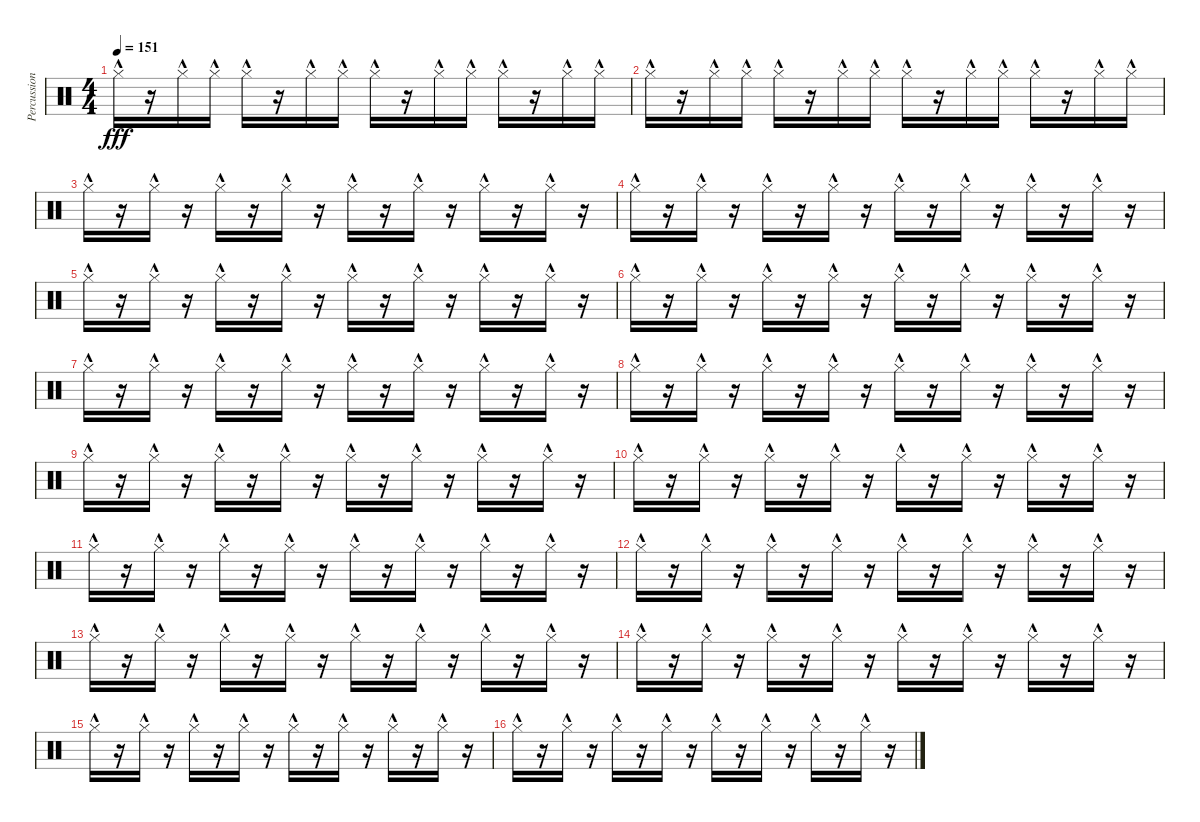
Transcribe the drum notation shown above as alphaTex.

\track ("Percussion" "Percussion") {instrument percussion}
\staff {score}
\articulation defaults
\ts (4 4)
\tempo 151
\clef neutral
\ks c "Hi-Hat (closed)"{hac}.16{dy fff}
r.16 "Hi-Hat (closed)"{hac}.16 "Hi-Hat (closed)"{hac}.16 "Hi-Hat (closed)"{hac}.16 r.16 "Hi-Hat (closed)"{hac}.16 "Hi-Hat (closed)"{hac}.16 "Hi-Hat (closed)"{hac}.16 r.16 "Hi-Hat (closed)"{hac}.16 "Hi-Hat (closed)"{hac}.16 "Hi-Hat (closed)"{hac}.16 r.16 "Hi-Hat (closed)"{hac}.16 "Hi-Hat (closed)"{hac}.16 |
"Hi-Hat (closed)"{hac}.16 r.16 "Hi-Hat (closed)"{hac}.16 "Hi-Hat (closed)"{hac}.16 "Hi-Hat (closed)"{hac}.16 r.16 "Hi-Hat (closed)"{hac}.16 "Hi-Hat (closed)"{hac}.16 "Hi-Hat (closed)"{hac}.16 r.16 "Hi-Hat (closed)"{hac}.16 "Hi-Hat (closed)"{hac}.16 "Hi-Hat (closed)"{hac}.16 r.16 "Hi-Hat (closed)"{hac}.16 "Hi-Hat (closed)"{hac}.16 |
"Hi-Hat (closed)"{hac}.16 r.16 "Hi-Hat (closed)"{hac}.16 r.16 "Hi-Hat (closed)"{hac}.16 r.16 "Hi-Hat (closed)"{hac}.16 r.16 "Hi-Hat (closed)"{hac}.16 r.16 "Hi-Hat (closed)"{hac}.16 r.16 "Hi-Hat (closed)"{hac}.16 r.16 "Hi-Hat (closed)"{hac}.16 r.16 |
"Hi-Hat (closed)"{hac}.16 r.16 "Hi-Hat (closed)"{hac}.16 r.16 "Hi-Hat (closed)"{hac}.16 r.16 "Hi-Hat (closed)"{hac}.16 r.16 "Hi-Hat (closed)"{hac}.16 r.16 "Hi-Hat (closed)"{hac}.16 r.16 "Hi-Hat (closed)"{hac}.16 r.16 "Hi-Hat (closed)"{hac}.16 r.16 |
"Hi-Hat (closed)"{hac}.16 r.16 "Hi-Hat (closed)"{hac}.16 r.16 "Hi-Hat (closed)"{hac}.16 r.16 "Hi-Hat (closed)"{hac}.16 r.16 "Hi-Hat (closed)"{hac}.16 r.16 "Hi-Hat (closed)"{hac}.16 r.16 "Hi-Hat (closed)"{hac}.16 r.16 "Hi-Hat (closed)"{hac}.16 r.16 |
"Hi-Hat (closed)"{hac}.16 r.16 "Hi-Hat (closed)"{hac}.16 r.16 "Hi-Hat (closed)"{hac}.16 r.16 "Hi-Hat (closed)"{hac}.16 r.16 "Hi-Hat (closed)"{hac}.16 r.16 "Hi-Hat (closed)"{hac}.16 r.16 "Hi-Hat (closed)"{hac}.16 r.16 "Hi-Hat (closed)"{hac}.16 r.16 |
"Hi-Hat (closed)"{hac}.16 r.16 "Hi-Hat (closed)"{hac}.16 r.16 "Hi-Hat (closed)"{hac}.16 r.16 "Hi-Hat (closed)"{hac}.16 r.16 "Hi-Hat (closed)"{hac}.16 r.16 "Hi-Hat (closed)"{hac}.16 r.16 "Hi-Hat (closed)"{hac}.16 r.16 "Hi-Hat (closed)"{hac}.16 r.16 |
"Hi-Hat (closed)"{hac}.16 r.16 "Hi-Hat (closed)"{hac}.16 r.16 "Hi-Hat (closed)"{hac}.16 r.16 "Hi-Hat (closed)"{hac}.16 r.16 "Hi-Hat (closed)"{hac}.16 r.16 "Hi-Hat (closed)"{hac}.16 r.16 "Hi-Hat (closed)"{hac}.16 r.16 "Hi-Hat (closed)"{hac}.16 r.16 |
"Hi-Hat (closed)"{hac}.16 r.16 "Hi-Hat (closed)"{hac}.16 r.16 "Hi-Hat (closed)"{hac}.16 r.16 "Hi-Hat (closed)"{hac}.16 r.16 "Hi-Hat (closed)"{hac}.16 r.16 "Hi-Hat (closed)"{hac}.16 r.16 "Hi-Hat (closed)"{hac}.16 r.16 "Hi-Hat (closed)"{hac}.16 r.16 |
"Hi-Hat (closed)"{hac}.16 r.16 "Hi-Hat (closed)"{hac}.16 r.16 "Hi-Hat (closed)"{hac}.16 r.16 "Hi-Hat (closed)"{hac}.16 r.16 "Hi-Hat (closed)"{hac}.16 r.16 "Hi-Hat (closed)"{hac}.16 r.16 "Hi-Hat (closed)"{hac}.16 r.16 "Hi-Hat (closed)"{hac}.16 r.16 |
"Hi-Hat (closed)"{hac}.16 r.16 "Hi-Hat (closed)"{hac}.16 r.16 "Hi-Hat (closed)"{hac}.16 r.16 "Hi-Hat (closed)"{hac}.16 r.16 "Hi-Hat (closed)"{hac}.16 r.16 "Hi-Hat (closed)"{hac}.16 r.16 "Hi-Hat (closed)"{hac}.16 r.16 "Hi-Hat (closed)"{hac}.16 r.16 |
"Hi-Hat (closed)"{hac}.16 r.16 "Hi-Hat (closed)"{hac}.16 r.16 "Hi-Hat (closed)"{hac}.16 r.16 "Hi-Hat (closed)"{hac}.16 r.16 "Hi-Hat (closed)"{hac}.16 r.16 "Hi-Hat (closed)"{hac}.16 r.16 "Hi-Hat (closed)"{hac}.16 r.16 "Hi-Hat (closed)"{hac}.16 r.16 |
"Hi-Hat (closed)"{hac}.16 r.16 "Hi-Hat (closed)"{hac}.16 r.16 "Hi-Hat (closed)"{hac}.16 r.16 "Hi-Hat (closed)"{hac}.16 r.16 "Hi-Hat (closed)"{hac}.16 r.16 "Hi-Hat (closed)"{hac}.16 r.16 "Hi-Hat (closed)"{hac}.16 r.16 "Hi-Hat (closed)"{hac}.16 r.16 |
"Hi-Hat (closed)"{hac}.16 r.16 "Hi-Hat (closed)"{hac}.16 r.16 "Hi-Hat (closed)"{hac}.16 r.16 "Hi-Hat (closed)"{hac}.16 r.16 "Hi-Hat (closed)"{hac}.16 r.16 "Hi-Hat (closed)"{hac}.16 r.16 "Hi-Hat (closed)"{hac}.16 r.16 "Hi-Hat (closed)"{hac}.16 r.16 |
"Hi-Hat (closed)"{hac}.16 r.16 "Hi-Hat (closed)"{hac}.16 r.16 "Hi-Hat (closed)"{hac}.16 r.16 "Hi-Hat (closed)"{hac}.16 r.16 "Hi-Hat (closed)"{hac}.16 r.16 "Hi-Hat (closed)"{hac}.16 r.16 "Hi-Hat (closed)"{hac}.16 r.16 "Hi-Hat (closed)"{hac}.16 r.16 |
"Hi-Hat (closed)"{hac}.16 r.16 "Hi-Hat (closed)"{hac}.16 r.16 "Hi-Hat (closed)"{hac}.16 r.16 "Hi-Hat (closed)"{hac}.16 r.16 "Hi-Hat (closed)"{hac}.16 r.16 "Hi-Hat (closed)"{hac}.16 r.16 "Hi-Hat (closed)"{hac}.16 r.16 "Hi-Hat (closed)"{hac}.16 r.16
